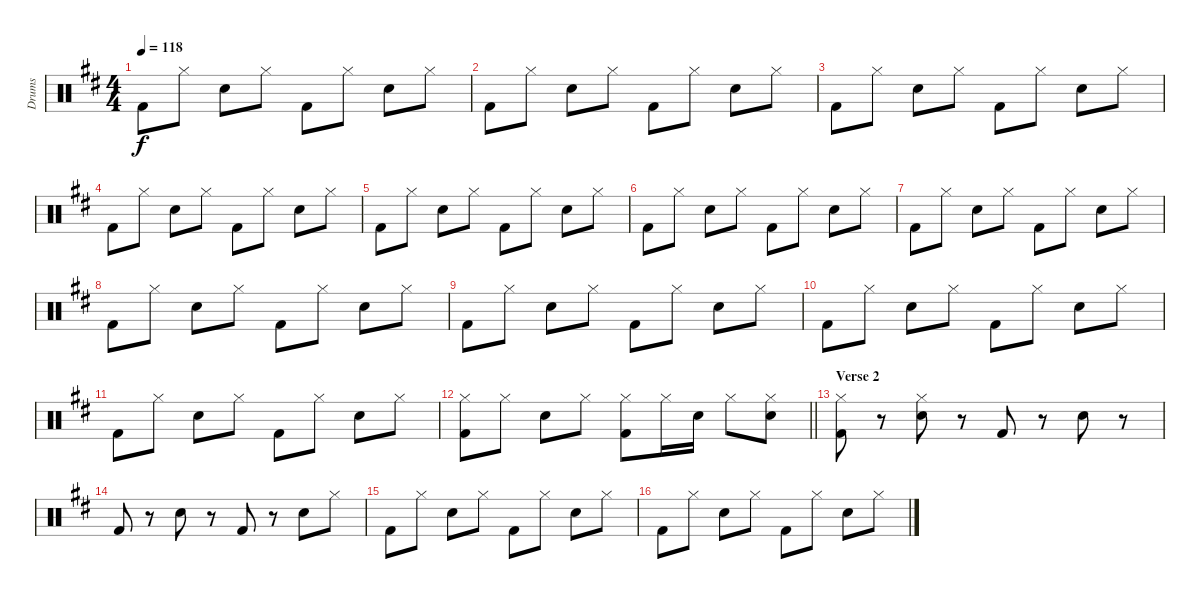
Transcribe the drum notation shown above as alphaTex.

\track ("Drums" "Drums") {instrument percussion}
\staff {score}
\articulation defaults
\ts (4 4)
\tempo 118
\clef neutral
\ks bminor "Kick (hit) 2".8{dy f} "Hi-Hat (closed)".8 "Snare (hit) 2".8 "Hi-Hat (closed)".8 "Kick (hit) 2".8 "Hi-Hat (closed)".8 "Snare (hit) 2".8 "Hi-Hat (closed)".8
|
"Kick (hit) 2".8 "Hi-Hat (closed)".8 "Snare (hit) 2".8 "Hi-Hat (closed)".8 "Kick (hit) 2".8 "Hi-Hat (closed)".8 "Snare (hit) 2".8 "Hi-Hat (closed)".8 |
"Kick (hit) 2".8 "Hi-Hat (closed)".8 "Snare (hit) 2".8 "Hi-Hat (closed)".8 "Kick (hit) 2".8 "Hi-Hat (closed)".8 "Snare (hit) 2".8 "Hi-Hat (closed)".8 |
"Kick (hit) 2".8 "Hi-Hat (closed)".8 "Snare (hit) 2".8 "Hi-Hat (closed)".8 "Kick (hit) 2".8 "Hi-Hat (closed)".8 "Snare (hit) 2".8 "Hi-Hat (closed)".8 |
"Kick (hit) 2".8 "Hi-Hat (closed)".8 "Snare (hit) 2".8 "Hi-Hat (closed)".8 "Kick (hit) 2".8 "Hi-Hat (closed)".8 "Snare (hit) 2".8 "Hi-Hat (closed)".8 |
"Kick (hit) 2".8 "Hi-Hat (closed)".8 "Snare (hit) 2".8 "Hi-Hat (closed)".8 "Kick (hit) 2".8 "Hi-Hat (closed)".8 "Snare (hit) 2".8 "Hi-Hat (closed)".8 |
"Kick (hit) 2".8 "Hi-Hat (closed)".8 "Snare (hit) 2".8 "Hi-Hat (closed)".8 "Kick (hit) 2".8 "Hi-Hat (closed)".8 "Snare (hit) 2".8 "Hi-Hat (closed)".8 |
"Kick (hit) 2".8 "Hi-Hat (closed)".8 "Snare (hit) 2".8 "Hi-Hat (closed)".8 "Kick (hit) 2".8 "Hi-Hat (closed)".8 "Snare (hit) 2".8 "Hi-Hat (closed)".8 |
"Kick (hit) 2".8 "Hi-Hat (closed)".8 "Snare (hit) 2".8 "Hi-Hat (closed)".8 "Kick (hit) 2".8 "Hi-Hat (closed)".8 "Snare (hit) 2".8 "Hi-Hat (closed)".8 |
"Kick (hit) 2".8 "Hi-Hat (closed)".8 "Snare (hit) 2".8 "Hi-Hat (closed)".8 "Kick (hit) 2".8 "Hi-Hat (closed)".8 "Snare (hit) 2".8 "Hi-Hat (closed)".8 |
"Kick (hit) 2".8 "Hi-Hat (closed)".8 "Snare (hit) 2".8 "Hi-Hat (closed)".8 "Kick (hit) 2".8 "Hi-Hat (closed)".8 "Snare (hit) 2".8 "Hi-Hat (closed)".8 |
\barLineRight lightlight
("Hi-Hat (closed)" "Kick (hit) 2").8 "Hi-Hat (closed)".8 "Snare (hit) 2".8 "Hi-Hat (closed)".8 ("Hi-Hat (closed)" "Kick (hit) 2").8 "Hi-Hat (closed)".16 "Snare (hit) 2".16 "Hi-Hat (closed)".8 ("Hi-Hat (closed)" "Snare (hit) 2").8 |
\section ("" "Verse 2")
("Hi-Hat (closed)" "Kick (hit) 2").8 r.8 ("Hi-Hat (closed)" "Snare (hit) 2").8 r.8 "Kick (hit) 2".8 r.8 "Snare (hit) 2".8 r.8 |
"Kick (hit) 2".8 r.8 "Snare (hit) 2".8 r.8 "Kick (hit) 2".8 r.8 "Snare (hit) 2".8 "Hi-Hat (closed)".8 |
"Kick (hit) 2".8 "Hi-Hat (closed)".8 "Snare (hit) 2".8 "Hi-Hat (closed)".8 "Kick (hit) 2".8 "Hi-Hat (closed)".8 "Snare (hit) 2".8 "Hi-Hat (closed)".8 |
"Kick (hit) 2".8 "Hi-Hat (closed)".8 "Snare (hit) 2".8 "Hi-Hat (closed)".8 "Kick (hit) 2".8 "Hi-Hat (closed)".8 "Snare (hit) 2".8 "Hi-Hat (closed)".8
